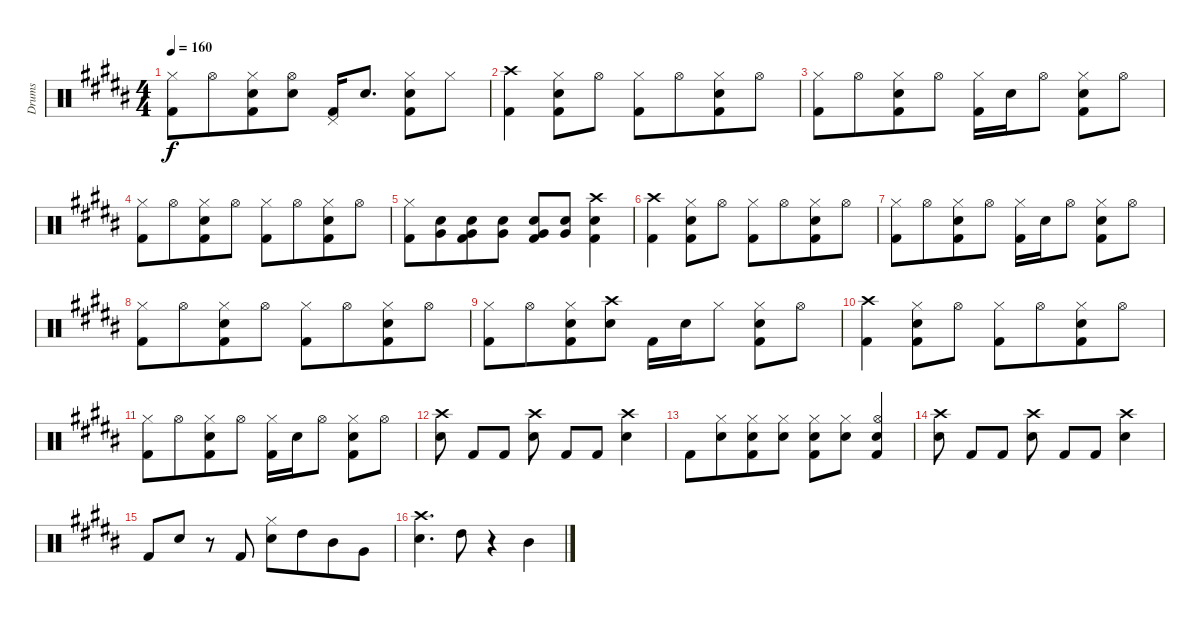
\track ("Drums" "Drums") {instrument percussion}
\staff {score}
\articulation defaults
\ts (4 4)
\tempo 160
\clef neutral
\ks b
("Hi-Hat (closed)" "Kick (hit) 2").8{dy f} "Hi-Hat (open)".8{beam merge} ("Hi-Hat (closed)" "Snare (hit) 2" "Kick (hit) 2").8 ("Hi-Hat (open)" "Snare (hit) 2").8 ("Pedal Hi-Hat (hit)" "Kick (hit) 2").16 "Snare (hit) 2".8{d} ("Hi-Hat (closed)" "Snare (hit) 2" "Kick (hit) 2").8 "Hi-Hat (closed)".8 |
("Kick (hit) 2" "Crash high (hit)").4 ("Hi-Hat (closed)" "Snare (hit) 2" "Kick (hit) 2").8 "Hi-Hat (open)".8 ("Hi-Hat (closed)" "Kick (hit) 2").8 "Hi-Hat (open)".8{beam merge} ("Hi-Hat (closed)" "Snare (hit) 2" "Kick (hit) 2").8 "Hi-Hat (open)".8 |
("Hi-Hat (closed)" "Kick (hit) 2").8 "Hi-Hat (open)".8{beam merge} ("Hi-Hat (closed)" "Snare (hit) 2" "Kick (hit) 2").8 "Hi-Hat (open)".8 ("Hi-Hat (closed)" "Kick (hit) 2").16 "Snare (hit) 2".16 "Hi-Hat (open)".8 ("Hi-Hat (closed)" "Snare (hit) 2" "Kick (hit) 2").8 "Hi-Hat (open)".8 |
("Hi-Hat (closed)" "Kick (hit) 2").8 "Hi-Hat (open)".8{beam merge} ("Hi-Hat (closed)" "Snare (hit) 2" "Kick (hit) 2").8 "Hi-Hat (open)".8 ("Hi-Hat (closed)" "Kick (hit) 2").8 "Hi-Hat (open)".8{beam merge} ("Hi-Hat (closed)" "Snare (hit) 2" "Kick (hit) 2").8 "Hi-Hat (open)".8 |
("Hi-Hat (closed)" "Kick (hit) 2").8 ("Very Low Tom (hit)" "Snare (hit) 2").8{beam merge} ("Very Low Tom (hit)" "Snare (hit) 2" "Kick (hit) 2").8 ("Very Low Tom (hit)" "Snare (hit) 2").8 ("Very Low Tom (hit)" "Snare (hit) 2" "Kick (hit) 2").8 ("Very Low Tom (hit)" "Snare (hit) 2").8 ("Snare (hit) 2" "Kick (hit) 2" "Crash high (hit)").4 |
("Kick (hit) 2" "Crash high (hit)").4 ("Hi-Hat (closed)" "Snare (hit) 2" "Kick (hit) 2").8 "Hi-Hat (open)".8 ("Hi-Hat (closed)" "Kick (hit) 2").8 "Hi-Hat (open)".8{beam merge} ("Hi-Hat (closed)" "Snare (hit) 2" "Kick (hit) 2").8 "Hi-Hat (open)".8 |
("Hi-Hat (closed)" "Kick (hit) 2").8 "Hi-Hat (open)".8{beam merge} ("Hi-Hat (closed)" "Snare (hit) 2" "Kick (hit) 2").8 "Hi-Hat (open)".8 ("Hi-Hat (closed)" "Kick (hit) 2").16 "Snare (hit) 2".16 "Hi-Hat (open)".8 ("Hi-Hat (closed)" "Snare (hit) 2" "Kick (hit) 2").8 "Hi-Hat (open)".8 |
("Hi-Hat (closed)" "Kick (hit) 2").8 "Hi-Hat (open)".8{beam merge} ("Hi-Hat (closed)" "Snare (hit) 2" "Kick (hit) 2").8 "Hi-Hat (open)".8 ("Hi-Hat (closed)" "Kick (hit) 2").8 "Hi-Hat (open)".8{beam merge} ("Hi-Hat (closed)" "Snare (hit) 2" "Kick (hit) 2").8 "Hi-Hat (open)".8 |
("Hi-Hat (closed)" "Kick (hit) 2").8 "Hi-Hat (open)".8{beam merge} ("Hi-Hat (closed)" "Snare (hit) 2" "Kick (hit) 2").8 ("Snare (hit) 2" "Crash high (hit)").8 "Kick (hit) 2".16 "Snare (hit) 2".16 "Hi-Hat (closed)".8 ("Hi-Hat (closed)" "Snare (hit) 2" "Kick (hit) 2").8 "Hi-Hat (open)".8 |
("Kick (hit) 2" "Crash high (hit)").4 ("Hi-Hat (closed)" "Snare (hit) 2" "Kick (hit) 2").8 "Hi-Hat (open)".8 ("Hi-Hat (closed)" "Kick (hit) 2").8 "Hi-Hat (open)".8{beam merge} ("Hi-Hat (closed)" "Snare (hit) 2" "Kick (hit) 2").8 "Hi-Hat (open)".8 |
("Hi-Hat (closed)" "Kick (hit) 2").8 "Hi-Hat (open)".8{beam merge} ("Hi-Hat (closed)" "Snare (hit) 2" "Kick (hit) 2").8 "Hi-Hat (open)".8 ("Hi-Hat (closed)" "Kick (hit) 2").16 "Snare (hit) 2".16 "Hi-Hat (open)".8 ("Hi-Hat (closed)" "Snare (hit) 2" "Kick (hit) 2").8 "Hi-Hat (open)".8 |
("Snare (hit) 2" "Crash high (hit)").8{beam split} "Kick (hit) 2".8{beam merge} "Kick (hit) 2".8{beam split} ("Snare (hit) 2" "Crash high (hit)").8 "Kick (hit) 2".8 "Kick (hit) 2".8 ("Snare (hit) 2" "Crash high (hit)").4 |
"Kick (hit) 2".8 ("Hi-Hat (closed)" "Snare (hit) 2").8{beam merge} ("Hi-Hat (closed)" "Snare (hit) 2" "Kick (hit) 2").8 ("Hi-Hat (closed)" "Snare (hit) 2").8 ("Hi-Hat (closed)" "Snare (hit) 2" "Kick (hit) 2").8 ("Hi-Hat (closed)" "Snare (hit) 2").8 ("Hi-Hat (open)" "Snare (hit) 2" "Kick (hit) 2").4 |
("Snare (hit) 2" "Crash high (hit)").8{beam split} "Kick (hit) 2".8{beam merge} "Kick (hit) 2".8{beam split} ("Snare (hit) 2" "Crash high (hit)").8{beam split} "Kick (hit) 2".8{beam merge} "Kick (hit) 2".8 ("Snare (hit) 2" "Crash high (hit)").4 |
"Kick (hit) 2".8 "Snare (hit) 2".8 r.8 "Kick (hit) 2".8 ("Hi-Hat (closed)" "Snare (hit) 2").8 "High Tom (hit)".8{beam merge} "Mid Tom (hit)".8 "Very Low Tom (hit)".8 |
("Snare (hit) 2" "Crash high (hit)").4{d} "High Tom (hit)".8 r.4 "Mid Tom (hit)".4
